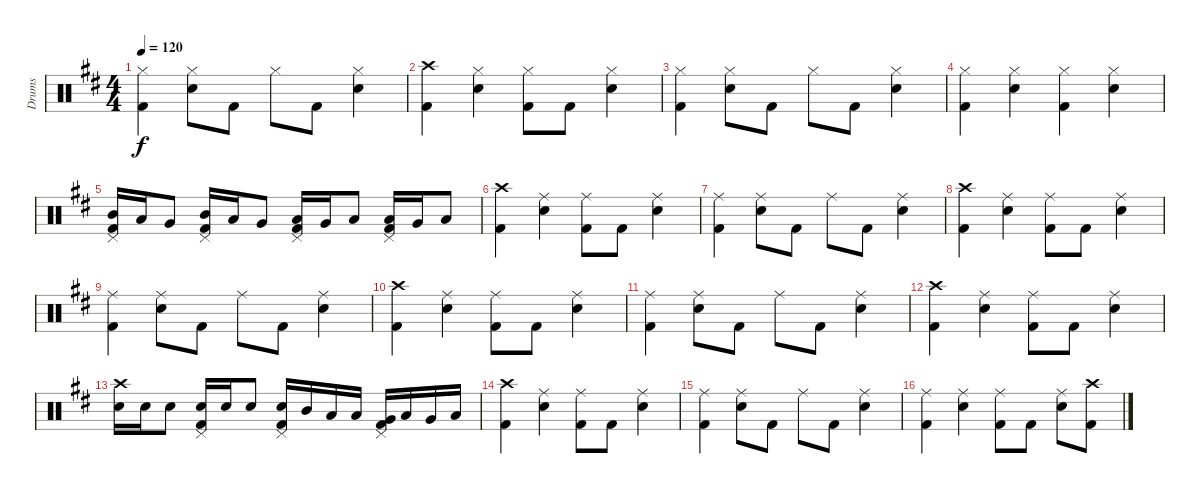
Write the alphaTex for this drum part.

\track ("Drums" "Drums") {instrument percussion}
\staff {score}
\articulation defaults
\ts (4 4)
\tempo 120
\clef neutral
\ks bminor
("Hi-Hat (closed)" "Kick (hit) 2").4{dy f} ("Hi-Hat (closed)" "Electric Snare (hit)").8 "Kick (hit) 2".8 "Hi-Hat (closed)".8 "Kick (hit) 2".8 ("Hi-Hat (closed)" "Electric Snare (hit)").4 |
("Crash high (hit)" "Kick (hit) 2").4 ("Hi-Hat (closed)" "Electric Snare (hit)").4 ("Hi-Hat (closed)" "Kick (hit) 2").8 "Kick (hit) 2".8 ("Hi-Hat (closed)" "Electric Snare (hit)").4 |
("Hi-Hat (closed)" "Kick (hit) 2").4 ("Hi-Hat (closed)" "Electric Snare (hit)").8 "Kick (hit) 2".8 "Hi-Hat (closed)".8 "Kick (hit) 2".8 ("Hi-Hat (closed)" "Electric Snare (hit)").4 |
("Hi-Hat (closed)" "Kick (hit) 2").4 ("Hi-Hat (closed)" "Electric Snare (hit)").4 ("Hi-Hat (closed)" "Kick (hit) 2").4 ("Hi-Hat (closed)" "Electric Snare (hit)").4 |
("Pedal Hi-Hat (hit)" "Mid Tom (hit)" "Kick (hit) 2").16 "Low Tom (hit)".16 "Very Low Tom (hit)".8 ("Pedal Hi-Hat (hit)" "Mid Tom (hit)" "Kick (hit) 2").16 "Low Tom (hit)".16 "Very Low Tom (hit)".8 ("Pedal Hi-Hat (hit)" "Low Tom (hit)" "Kick (hit) 2").16 "Very Low Tom (hit)".16 "Low Floor Tom (hit)".8 ("Pedal Hi-Hat (hit)" "Low Floor Tom (hit)" "Kick (hit) 2").16 "Very Low Tom (hit)".16 "Low Floor Tom (hit)".8 |
("Crash high (hit)" "Kick (hit) 2").4 ("Ride (middle)" "Electric Snare (hit)").4 ("Ride (middle)" "Kick (hit) 2").8 "Kick (hit) 2".8 ("Ride (middle)" "Electric Snare (hit)").4 |
("Ride (middle)" "Kick (hit) 2").4 ("Ride (middle)" "Electric Snare (hit)").8 "Kick (hit) 2".8 "Ride (middle)".8 "Kick (hit) 2".8 ("Ride (middle)" "Electric Snare (hit)").4 |
("Crash high (hit)" "Kick (hit) 2").4 ("Ride (middle)" "Electric Snare (hit)").4 ("Ride (middle)" "Kick (hit) 2").8 "Kick (hit) 2".8 ("Ride (middle)" "Electric Snare (hit)").4 |
("Ride (middle)" "Kick (hit) 2").4 ("Ride (middle)" "Electric Snare (hit)").8 "Kick (hit) 2".8 "Ride (middle)".8 "Kick (hit) 2".8 ("Ride (middle)" "Electric Snare (hit)").4 |
("Crash high (hit)" "Kick (hit) 2").4 ("Ride (middle)" "Electric Snare (hit)").4 ("Ride (middle)" "Kick (hit) 2").8 "Kick (hit) 2".8 ("Ride (middle)" "Electric Snare (hit)").4 |
("Ride (middle)" "Kick (hit) 2").4 ("Ride (middle)" "Electric Snare (hit)").8 "Kick (hit) 2".8 "Ride (middle)".8 "Kick (hit) 2".8 ("Ride (middle)" "Electric Snare (hit)").4 |
("Crash high (hit)" "Kick (hit) 2").4 ("Ride (middle)" "Electric Snare (hit)").4 ("Ride (middle)" "Kick (hit) 2").8 "Kick (hit) 2".8 ("Ride (middle)" "Electric Snare (hit)").4 |
("Crash high (hit)" "Electric Snare (hit)").16 "Electric Snare (hit)".16 "Electric Snare (hit)".8 ("Pedal Hi-Hat (hit)" "Electric Snare (hit)" "Kick (hit) 2").16 "Electric Snare (hit)".16 "Electric Snare (hit)".8 ("Pedal Hi-Hat (hit)" "Electric Snare (hit)" "Kick (hit) 2").16 "Mid Tom (hit)".16 "Low Tom (hit)".16 "Low Tom (hit)".16 ("Pedal Hi-Hat (hit)" "Very Low Tom (hit)" "Kick (hit) 2").16 "Low Tom (hit)".16 "Very Low Tom (hit)".16 "Low Floor Tom (hit)".16 |
("Crash high (hit)" "Kick (hit) 2").4 ("Ride (middle)" "Electric Snare (hit)").4 ("Ride (middle)" "Kick (hit) 2").8 "Kick (hit) 2".8 ("Ride (middle)" "Electric Snare (hit)").4 |
("Ride (middle)" "Kick (hit) 2").4 ("Ride (middle)" "Electric Snare (hit)").8 "Kick (hit) 2".8 "Ride (middle)".8 "Kick (hit) 2".8 ("Ride (middle)" "Electric Snare (hit)").4 |
("Ride (middle)" "Kick (hit) 2").4 ("Ride (middle)" "Electric Snare (hit)").4 ("Ride (middle)" "Kick (hit) 2").8 "Kick (hit) 2".8 ("Ride (middle)" "Electric Snare (hit)").8 ("Crash high (hit)" "Kick (hit) 2").8
